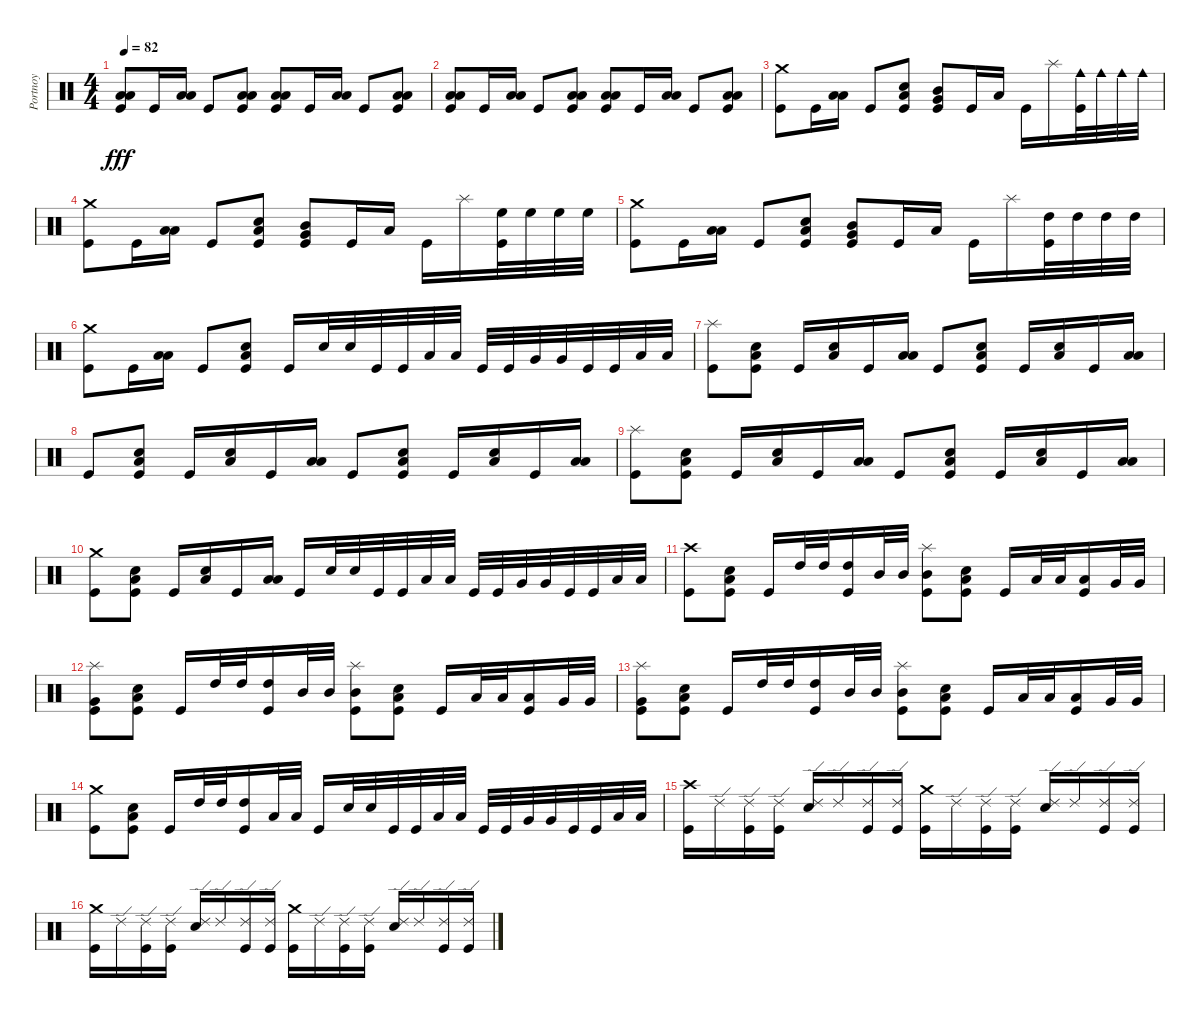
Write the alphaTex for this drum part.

\track ("Portnoy" "Portnoy") {instrument percussion}
\staff {score}
\articulation defaults
\ts (4 4)
\tempo 82
\clef neutral
\ks c
("Low Tom (hit)" "Low Floor Tom (hit)" "Kick (hit)").8{dy fff} "Kick (hit)".16 ("Low Tom (hit)" "Low Floor Tom (hit)").16 "Kick (hit)".8 ("Low Tom (hit)" "Low Floor Tom (hit)" "Kick (hit)").8 ("Low Tom (hit)" "Low Floor Tom (hit)" "Kick (hit)").8 "Kick (hit)".16 ("Low Tom (hit)" "Low Floor Tom (hit)").16 "Kick (hit)".8 ("Low Tom (hit)" "Low Floor Tom (hit)" "Kick (hit)").8 |
("Low Tom (hit)" "Low Floor Tom (hit)" "Kick (hit)").8 "Kick (hit)".16 ("Low Tom (hit)" "Low Floor Tom (hit)").16 "Kick (hit)".8 ("Low Tom (hit)" "Low Floor Tom (hit)" "Kick (hit)").8 ("Low Tom (hit)" "Low Floor Tom (hit)" "Kick (hit)").8 "Kick (hit)".16 ("Low Tom (hit)" "Low Floor Tom (hit)").16 "Kick (hit)".8 ("Low Tom (hit)" "Low Floor Tom (hit)" "Kick (hit)").8 |
("Crash medium (hit)" "Kick (hit)").8 "Kick (hit)".16 ("Low Tom (hit)" "Low Floor Tom (hit)").16 "Kick (hit)".8 ("Low Floor Tom (hit)" "Snare (hit) 2" "Kick (hit)").8 ("Mid Tom (hit)" "Very Low Tom (hit)" "Kick (hit)").8 "Kick (hit)".16 "Low Floor Tom (hit)".16 "Kick (hit)".16 "Splash (hit)".16 ("Cowbell medium (hit)" "Kick (hit)").32 "Cowbell medium (hit)".32 "Cowbell medium (hit)".32 "Cowbell medium (hit)".32 |
("Crash medium (hit)" "Kick (hit)").8 "Kick (hit)".16 ("Low Tom (hit)" "Low Floor Tom (hit)").16 "Kick (hit)".8 ("Low Floor Tom (hit)" "Snare (hit) 2" "Kick (hit)").8 ("Mid Tom (hit)" "Very Low Tom (hit)" "Kick (hit)").8 "Kick (hit)".16 "Low Floor Tom (hit)".16 "Kick (hit)".16 "Splash (hit)".16 ("High Floor Tom (hit)" "Kick (hit)").32 "High Floor Tom (hit)".32 "High Floor Tom (hit)".32 "High Floor Tom (hit)".32 |
("Crash medium (hit)" "Kick (hit)").8 "Kick (hit)".16 ("Low Tom (hit)" "Low Floor Tom (hit)").16 "Kick (hit)".8 ("Low Floor Tom (hit)" "Snare (hit) 2" "Kick (hit)").8 ("Mid Tom (hit)" "Very Low Tom (hit)" "Kick (hit)").8 "Kick (hit)".16 "Low Floor Tom (hit)".16 "Kick (hit)".16 "Splash (hit)".16 ("High Tom (hit)" "Kick (hit)").32 "High Tom (hit)".32 "High Tom (hit)".32 "High Tom (hit)".32 |
("Crash medium (hit)" "Kick (hit)").8 "Kick (hit)".16 ("Low Tom (hit)" "Low Floor Tom (hit)").16 "Kick (hit)".8 ("Low Floor Tom (hit)" "Snare (hit) 2" "Kick (hit)").8 "Kick (hit)".16 "Snare (hit) 2".32 "Snare (hit) 2".32 "Kick (hit)".32 "Kick (hit)".32 "Low Tom (hit)".32 "Low Tom (hit)".32 "Kick (hit)".32 "Kick (hit)".32 "Very Low Tom (hit)".32 "Very Low Tom (hit)".32 "Kick (hit)".32 "Kick (hit)".32 "Low Floor Tom (hit)".32 "Low Floor Tom (hit)".32 |
("Splash (hit)" "Kick (hit)").8 ("Low Floor Tom (hit)" "Snare (hit) 2" "Kick (hit)").8 "Kick (hit)".16 ("Low Tom (hit)" "Snare (hit) 2").16 "Kick (hit)".16 ("Low Tom (hit)" "Low Floor Tom (hit)").16 "Kick (hit)".8 ("Low Floor Tom (hit)" "Snare (hit) 2" "Kick (hit)").8 "Kick (hit)".16 ("Low Tom (hit)" "Snare (hit) 2").16 "Kick (hit)".16 ("Low Tom (hit)" "Low Floor Tom (hit)").16 |
"Kick (hit)".8 ("Low Floor Tom (hit)" "Snare (hit) 2" "Kick (hit)").8 "Kick (hit)".16 ("Low Tom (hit)" "Snare (hit) 2").16 "Kick (hit)".16 ("Low Tom (hit)" "Low Floor Tom (hit)").16 "Kick (hit)".8 ("Low Floor Tom (hit)" "Snare (hit) 2" "Kick (hit)").8 "Kick (hit)".16 ("Low Tom (hit)" "Snare (hit) 2").16 "Kick (hit)".16 ("Low Tom (hit)" "Low Floor Tom (hit)").16 |
("Splash (hit)" "Kick (hit)").8 ("Low Floor Tom (hit)" "Snare (hit) 2" "Kick (hit)").8 "Kick (hit)".16 ("Low Tom (hit)" "Snare (hit) 2").16 "Kick (hit)".16 ("Low Tom (hit)" "Low Floor Tom (hit)").16 "Kick (hit)".8 ("Low Floor Tom (hit)" "Snare (hit) 2" "Kick (hit)").8 "Kick (hit)".16 ("Low Tom (hit)" "Snare (hit) 2").16 "Kick (hit)".16 ("Low Tom (hit)" "Low Floor Tom (hit)").16 |
("Crash medium (hit)" "Kick (hit)").8 ("Low Floor Tom (hit)" "Snare (hit) 2" "Kick (hit)").8 "Kick (hit)".16 ("Low Tom (hit)" "Snare (hit) 2").16 "Kick (hit)".16 ("Low Tom (hit)" "Low Floor Tom (hit)").16 "Kick (hit)".16 "Snare (hit) 2".32 "Snare (hit) 2".32 "Kick (hit)".32 "Kick (hit)".32 "Low Tom (hit)".32 "Low Tom (hit)".32 "Kick (hit)".32 "Kick (hit)".32 "Very Low Tom (hit)".32 "Very Low Tom (hit)".32 "Kick (hit)".32 "Kick (hit)".32 "Low Floor Tom (hit)".32 "Low Floor Tom (hit)".32 |
("Crash high (hit)" "Kick (hit)").8 ("Low Floor Tom (hit)" "Snare (hit) 2" "Kick (hit)").8 "Kick (hit)".16 "High Tom (hit)".32 "High Tom (hit)".32 ("High Tom (hit)" "Kick (hit)").16 "Mid Tom (hit)".32 "Mid Tom (hit)".32 ("Splash (hit)" "Mid Tom (hit)" "Kick (hit)").8 ("Low Floor Tom (hit)" "Snare (hit) 2" "Kick (hit)").8 "Kick (hit)".16 "Low Tom (hit)".32 "Low Tom (hit)".32 ("Low Tom (hit)" "Kick (hit)").16 "Very Low Tom (hit)".32 "Very Low Tom (hit)".32 |
("Splash (hit)" "Very Low Tom (hit)" "Kick (hit)").8 ("Low Floor Tom (hit)" "Snare (hit) 2" "Kick (hit)").8 "Kick (hit)".16 "High Tom (hit)".32 "High Tom (hit)".32 ("High Tom (hit)" "Kick (hit)").16 "Mid Tom (hit)".32 "Mid Tom (hit)".32 ("Splash (hit)" "Mid Tom (hit)" "Kick (hit)").8 ("Low Floor Tom (hit)" "Snare (hit) 2" "Kick (hit)").8 "Kick (hit)".16 "Low Tom (hit)".32 "Low Tom (hit)".32 ("Low Tom (hit)" "Kick (hit)").16 "Very Low Tom (hit)".32 "Very Low Tom (hit)".32 |
("Splash (hit)" "Very Low Tom (hit)" "Kick (hit)").8 ("Low Floor Tom (hit)" "Snare (hit) 2" "Kick (hit)").8 "Kick (hit)".16 "High Tom (hit)".32 "High Tom (hit)".32 ("High Tom (hit)" "Kick (hit)").16 "Mid Tom (hit)".32 "Mid Tom (hit)".32 ("Splash (hit)" "Mid Tom (hit)" "Kick (hit)").8 ("Low Floor Tom (hit)" "Snare (hit) 2" "Kick (hit)").8 "Kick (hit)".16 "Low Tom (hit)".32 "Low Tom (hit)".32 ("Low Tom (hit)" "Kick (hit)").16 "Very Low Tom (hit)".32 "Very Low Tom (hit)".32 |
("Crash medium (hit)" "Kick (hit)").8 ("Low Floor Tom (hit)" "Snare (hit) 2" "Kick (hit)").8 "Kick (hit)".16 "High Tom (hit)".32 "High Tom (hit)".32 ("High Tom (hit)" "Kick (hit)").16 "Low Tom (hit)".32 "Low Tom (hit)".32 "Kick (hit)".16 "Snare (hit) 2".32 "Snare (hit) 2".32 "Kick (hit)".32 "Kick (hit)".32 "Low Tom (hit)".32 "Low Tom (hit)".32 "Kick (hit)".32 "Kick (hit)".32 "Very Low Tom (hit)".32 "Very Low Tom (hit)".32 "Kick (hit)".32 "Kick (hit)".32 "Low Floor Tom (hit)".32 "Low Floor Tom (hit)".32 |
("Crash high (hit)" "Kick (hit)").16 "Ride (edge) 2".16 ("Ride (edge) 2" "Kick (hit)").16 ("Ride (edge) 2" "Kick (hit)").16 ("Ride (edge) 2" "Snare (hit) 2").16 "Ride (edge) 2".16 ("Ride (edge) 2" "Kick (hit)").16 ("Ride (edge) 2" "Kick (hit)").16 ("Crash medium (hit)" "Kick (hit)").16 "Ride (edge) 2".16 ("Ride (edge) 2" "Kick (hit)").16 ("Ride (edge) 2" "Kick (hit)").16 ("Ride (edge) 2" "Snare (hit) 2").16 "Ride (edge) 2".16 ("Ride (edge) 2" "Kick (hit)").16 ("Ride (edge) 2" "Kick (hit)").16 |
("Crash medium (hit)" "Kick (hit)").16 "Ride (edge) 2".16 ("Ride (edge) 2" "Kick (hit)").16 ("Ride (edge) 2" "Kick (hit)").16 ("Ride (edge) 2" "Snare (hit) 2").16 "Ride (edge) 2".16 ("Ride (edge) 2" "Kick (hit)").16 ("Ride (edge) 2" "Kick (hit)").16 ("Crash medium (hit)" "Kick (hit)").16 "Ride (edge) 2".16 ("Ride (edge) 2" "Kick (hit)").16 ("Ride (edge) 2" "Kick (hit)").16 ("Ride (edge) 2" "Snare (hit) 2").16 "Ride (edge) 2".16 ("Ride (edge) 2" "Kick (hit)").16 ("Ride (edge) 2" "Kick (hit)").16
